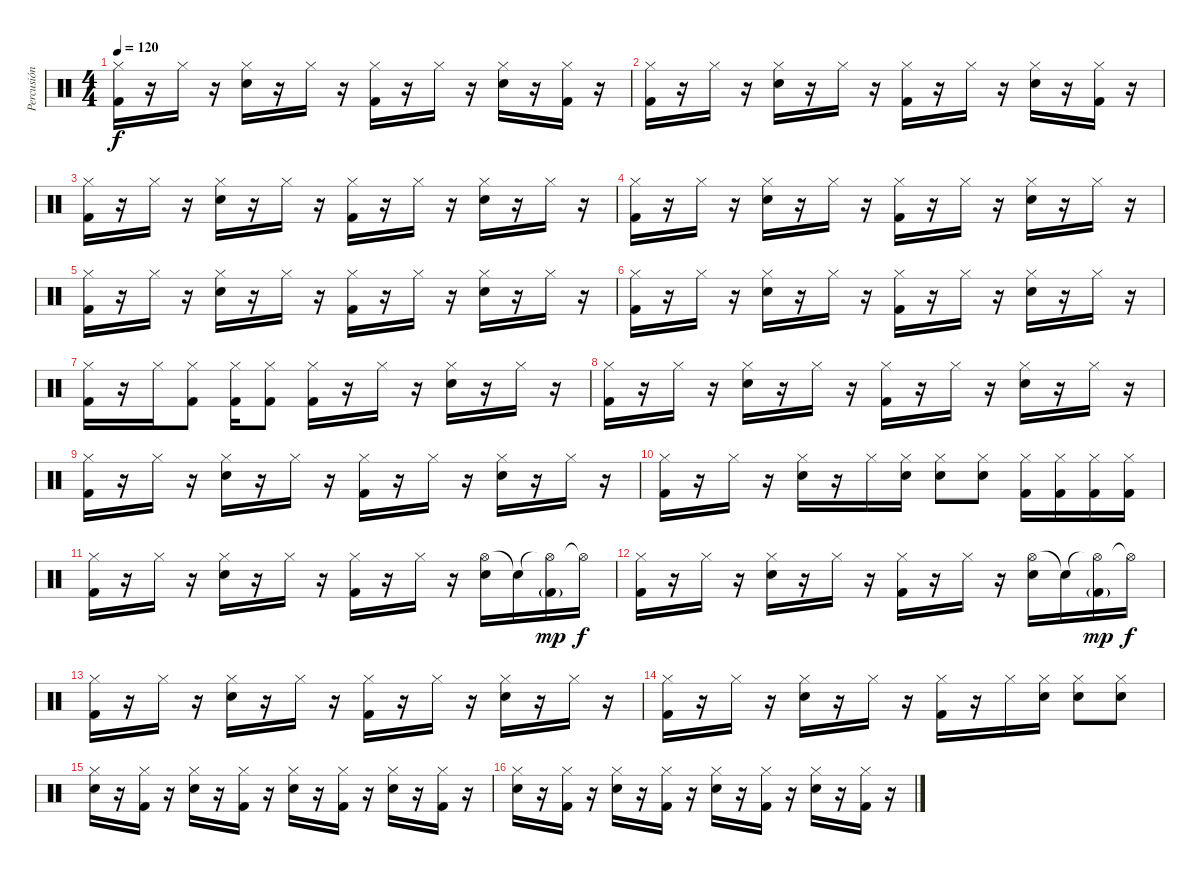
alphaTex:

\track ("Percusión" "Percusión") {instrument percussion}
\staff {score}
\articulation defaults
\ts (4 4)
\tempo 120
\clef neutral
\ks c
("Hi-Hat (closed)" "Kick (hit) 2").16{dy f} r.16 "Hi-Hat (closed)".16 r.16 ("Hi-Hat (closed)" "Snare (hit) 2").16 r.16 "Hi-Hat (closed)".16 r.16 ("Hi-Hat (closed)" "Kick (hit) 2").16 r.16 "Hi-Hat (closed)".16 r.16 ("Hi-Hat (closed)" "Snare (hit) 2").16 r.16 ("Hi-Hat (closed)" "Kick (hit) 2").16 r.16 |
("Hi-Hat (closed)" "Kick (hit) 2").16 r.16 "Hi-Hat (closed)".16 r.16 ("Hi-Hat (closed)" "Snare (hit) 2").16 r.16 "Hi-Hat (closed)".16 r.16 ("Hi-Hat (closed)" "Kick (hit) 2").16 r.16 "Hi-Hat (closed)".16 r.16 ("Hi-Hat (closed)" "Snare (hit) 2").16 r.16 ("Hi-Hat (closed)" "Kick (hit) 2").16 r.16 |
("Hi-Hat (closed)" "Kick (hit) 2").16 r.16 "Hi-Hat (closed)".16 r.16 ("Hi-Hat (closed)" "Snare (hit) 2").16 r.16 "Hi-Hat (closed)".16 r.16 ("Hi-Hat (closed)" "Kick (hit) 2").16 r.16 "Hi-Hat (closed)".16 r.16 ("Hi-Hat (closed)" "Snare (hit) 2").16 r.16 "Hi-Hat (closed)".16 r.16 |
("Hi-Hat (closed)" "Kick (hit) 2").16 r.16 "Hi-Hat (closed)".16 r.16 ("Hi-Hat (closed)" "Snare (hit) 2").16 r.16 "Hi-Hat (closed)".16 r.16 ("Hi-Hat (closed)" "Kick (hit) 2").16 r.16 "Hi-Hat (closed)".16 r.16 ("Hi-Hat (closed)" "Snare (hit) 2").16 r.16 "Hi-Hat (closed)".16 r.16 |
("Hi-Hat (closed)" "Kick (hit) 2").16 r.16 "Hi-Hat (closed)".16 r.16 ("Hi-Hat (closed)" "Snare (hit) 2").16 r.16 "Hi-Hat (closed)".16 r.16 ("Hi-Hat (closed)" "Kick (hit) 2").16 r.16 "Hi-Hat (closed)".16 r.16 ("Hi-Hat (closed)" "Snare (hit) 2").16 r.16 "Hi-Hat (closed)".16 r.16 |
("Hi-Hat (closed)" "Kick (hit) 2").16 r.16 "Hi-Hat (closed)".16 r.16 ("Hi-Hat (closed)" "Snare (hit) 2").16 r.16 "Hi-Hat (closed)".16 r.16 ("Hi-Hat (closed)" "Kick (hit) 2").16 r.16 "Hi-Hat (closed)".16 r.16 ("Hi-Hat (closed)" "Snare (hit) 2").16 r.16 "Hi-Hat (closed)".16 r.16 |
("Hi-Hat (closed)" "Kick (hit) 2").16 r.16 "Hi-Hat (closed)".16 ("Hi-Hat (closed)" "Kick (hit) 2").8 ("Hi-Hat (closed)" "Kick (hit) 2").16 ("Hi-Hat (closed)" "Kick (hit) 2").8 ("Hi-Hat (closed)" "Kick (hit) 2").16 r.16 "Hi-Hat (closed)".16 r.16 ("Hi-Hat (closed)" "Snare (hit) 2").16 r.16 "Hi-Hat (closed)".16 r.16 |
("Hi-Hat (closed)" "Kick (hit) 2").16 r.16 "Hi-Hat (closed)".16 r.16 ("Hi-Hat (closed)" "Snare (hit) 2").16 r.16 "Hi-Hat (closed)".16 r.16 ("Hi-Hat (closed)" "Kick (hit) 2").16 r.16 "Hi-Hat (closed)".16 r.16 ("Hi-Hat (closed)" "Snare (hit) 2").16 r.16 "Hi-Hat (closed)".16 r.16 |
("Hi-Hat (closed)" "Kick (hit) 2").16 r.16 "Hi-Hat (closed)".16 r.16 ("Hi-Hat (closed)" "Snare (hit) 2").16 r.16 "Hi-Hat (closed)".16 r.16 ("Hi-Hat (closed)" "Kick (hit) 2").16 r.16 "Hi-Hat (closed)".16 r.16 ("Hi-Hat (closed)" "Snare (hit) 2").16 r.16 "Hi-Hat (closed)".16 r.16 |
("Hi-Hat (closed)" "Kick (hit) 2").16 r.16 "Hi-Hat (closed)".16 r.16 ("Hi-Hat (closed)" "Snare (hit) 2").16 r.16 "Hi-Hat (closed)".16 ("Hi-Hat (closed)" "Snare (hit) 2").16 ("Hi-Hat (closed)" "Snare (hit) 2").8 ("Hi-Hat (closed)" "Snare (hit) 2").8 ("Hi-Hat (closed)" "Kick (hit) 2").16 ("Hi-Hat (closed)" "Kick (hit) 2").16 ("Hi-Hat (closed)" "Kick (hit) 2").16 ("Hi-Hat (closed)" "Kick (hit) 2").16 |
("Hi-Hat (closed)" "Kick (hit) 2").16 r.16 "Hi-Hat (closed)".16 r.16 ("Hi-Hat (closed)" "Snare (hit) 2").16 r.16 "Hi-Hat (closed)".16 r.16 ("Hi-Hat (closed)" "Kick (hit) 2").16 r.16 "Hi-Hat (closed)".16 r.16 ("Hi-Hat (open)" "Snare (hit) 2").16 "Snare (hit)"{t}.16 ("Hi-Hat (open)"{t} "Kick (hit) 2"{g}).16{dy mp} "Hi-Hat (open)"{t}.16{dy f} |
("Hi-Hat (closed)" "Kick (hit) 2").16 r.16 "Hi-Hat (closed)".16 r.16 ("Hi-Hat (closed)" "Snare (hit) 2").16 r.16 "Hi-Hat (closed)".16 r.16 ("Hi-Hat (closed)" "Kick (hit) 2").16 r.16 "Hi-Hat (closed)".16 r.16 ("Hi-Hat (open)" "Snare (hit) 2").16 "Snare (hit)"{t}.16 ("Hi-Hat (open)"{t} "Kick (hit) 2"{g}).16{dy mp} "Hi-Hat (open)"{t}.16{dy f} |
("Hi-Hat (closed)" "Kick (hit) 2").16 r.16 "Hi-Hat (closed)".16 r.16 ("Hi-Hat (closed)" "Snare (hit) 2").16 r.16 "Hi-Hat (closed)".16 r.16 ("Hi-Hat (closed)" "Kick (hit) 2").16 r.16 "Hi-Hat (closed)".16 r.16 ("Hi-Hat (closed)" "Snare (hit) 2").16 r.16 "Hi-Hat (closed)".16 r.16 |
("Hi-Hat (closed)" "Kick (hit) 2").16 r.16 "Hi-Hat (closed)".16 r.16 ("Hi-Hat (closed)" "Snare (hit) 2").16 r.16 "Hi-Hat (closed)".16 r.16 ("Hi-Hat (closed)" "Kick (hit) 2").16 r.16 "Hi-Hat (closed)".16 ("Hi-Hat (closed)" "Snare (hit) 2").16 ("Hi-Hat (closed)" "Snare (hit) 2").8 ("Hi-Hat (closed)" "Snare (hit) 2").8 |
("Hi-Hat (closed)" "Snare (hit) 2").16 r.16 ("Hi-Hat (closed)" "Kick (hit) 2").16 r.16 ("Hi-Hat (closed)" "Snare (hit) 2").16 r.16 ("Hi-Hat (closed)" "Kick (hit) 2").16 r.16 ("Hi-Hat (closed)" "Snare (hit) 2").16 r.16 ("Hi-Hat (closed)" "Kick (hit) 2").16 r.16 ("Hi-Hat (closed)" "Snare (hit) 2").16 r.16 ("Hi-Hat (closed)" "Kick (hit) 2").16 r.16 |
("Hi-Hat (closed)" "Snare (hit) 2").16 r.16 ("Hi-Hat (closed)" "Kick (hit) 2").16 r.16 ("Hi-Hat (closed)" "Snare (hit) 2").16 r.16 ("Hi-Hat (closed)" "Kick (hit) 2").16 r.16 ("Hi-Hat (closed)" "Snare (hit) 2").16 r.16 ("Hi-Hat (closed)" "Kick (hit) 2").16 r.16 ("Hi-Hat (closed)" "Snare (hit) 2").16 r.16 ("Hi-Hat (closed)" "Kick (hit) 2").16 r.16
